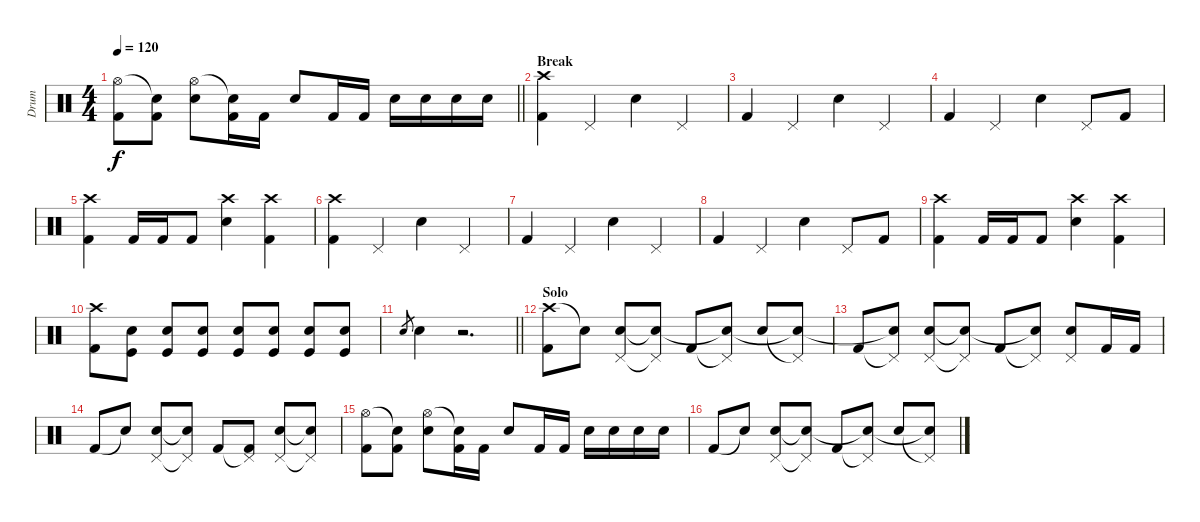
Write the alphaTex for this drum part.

\track ("Drum" "Drum") {instrument percussion}
\staff {score}
\articulation defaults
\ts (4 4)
\tempo 120
\clef neutral
\barLineRight lightlight
\ks c
("Hi-Hat (open)" "Kick (hit) 2").8{dy f} ("Snare (hit)"{t} "Kick (hit) 2").8 ("Hi-Hat (open)" "Electric Snare (hit)").8 ("Snare (hit)"{t} "Kick (hit) 2").16 "Kick (hit) 2".16 "Electric Snare (hit)".8 "Kick (hit) 2".16 "Kick (hit) 2".16 "Electric Snare (hit)".16 "Electric Snare (hit)".16 "Electric Snare (hit)".16 "Electric Snare (hit)".16 |
\section ("" "Break")
("Crash high (hit)" "Kick (hit) 2").4 "Pedal Hi-Hat (hit)".4 "Electric Snare (hit)".4 "Pedal Hi-Hat (hit)".4 |
"Kick (hit) 2".4 "Pedal Hi-Hat (hit)".4 "Electric Snare (hit)".4 "Pedal Hi-Hat (hit)".4 |
"Kick (hit) 2".4 "Pedal Hi-Hat (hit)".4 "Electric Snare (hit)".4 "Pedal Hi-Hat (hit)".8 "Kick (hit) 2".8 |
("Crash high (hit)" "Kick (hit) 2").4 "Kick (hit) 2".16 "Kick (hit) 2".16 "Kick (hit) 2".8 ("Crash high (hit)" "Electric Snare (hit)").4 ("Crash high (hit)" "Kick (hit) 2").4 |
("Crash high (hit)" "Kick (hit) 2").4 "Pedal Hi-Hat (hit)".4 "Electric Snare (hit)".4 "Pedal Hi-Hat (hit)".4 |
"Kick (hit) 2".4 "Pedal Hi-Hat (hit)".4 "Electric Snare (hit)".4 "Pedal Hi-Hat (hit)".4 |
"Kick (hit) 2".4 "Pedal Hi-Hat (hit)".4 "Electric Snare (hit)".4 "Pedal Hi-Hat (hit)".8 "Kick (hit) 2".8 |
("Crash high (hit)" "Kick (hit) 2").4 "Kick (hit) 2".16 "Kick (hit) 2".16 "Kick (hit) 2".8 ("Crash high (hit)" "Electric Snare (hit)").4 ("Crash high (hit)" "Kick (hit) 2").4 |
("Crash high (hit)" "Kick (hit) 2").8 ("Electric Snare (hit)" "Kick (hit)").8 ("Electric Snare (hit)" "Kick (hit)").8 ("Electric Snare (hit)" "Kick (hit)").8 ("Electric Snare (hit)" "Kick (hit)").8 ("Electric Snare (hit)" "Kick (hit)").8 ("Electric Snare (hit)" "Kick (hit)").8 ("Electric Snare (hit)" "Kick (hit)").8 |
\barLineRight lightlight "Electric Snare (hit)".8{gr} "Electric Snare (hit)".4
r.2{d} |
\section ("" "Solo")
("Crash high (hit)" "Kick (hit) 2").8{volume 11} "Snare (hit)"{t}.8 ("Pedal Hi-Hat (hit)" "Electric Snare (hit)").8 ("Pedal Hi-Hat (hit)"{t} "Snare (hit)"{t}).8 "Kick (hit) 2".8 ("Pedal Hi-Hat (hit)"{t} "Snare (hit)"{t}).8 "Electric Snare (hit)".8 ("Pedal Hi-Hat (hit)"{t} "Snare (hit)"{t}).8 |
"Kick (hit) 2".8{volume 11} ("Pedal Hi-Hat (hit)"{t} "Snare (hit)"{t}).8 ("Pedal Hi-Hat (hit)" "Electric Snare (hit)").8 ("Pedal Hi-Hat (hit)"{t} "Snare (hit)"{t}).8 "Kick (hit) 2".8 ("Pedal Hi-Hat (hit)"{t} "Snare (hit)"{t}).8 ("Pedal Hi-Hat (hit)" "Electric Snare (hit)").8 "Kick (hit) 2".16 "Kick (hit) 2".16 |
"Kick (hit) 2".8{volume 11} "Snare (hit)"{t}.8 ("Pedal Hi-Hat (hit)" "Electric Snare (hit)").8 ("Pedal Hi-Hat (hit)"{t} "Snare (hit)"{t}).8 "Kick (hit) 2".8 ("Pedal Hi-Hat (hit)"{t} "Kick (hit) 2").8 ("Pedal Hi-Hat (hit)" "Electric Snare (hit)").8 ("Pedal Hi-Hat (hit)"{t} "Snare (hit)"{t}).8 |
("Hi-Hat (open)" "Kick (hit) 2").8 ("Snare (hit)"{t} "Kick (hit) 2").8 ("Hi-Hat (open)" "Electric Snare (hit)").8 ("Snare (hit)"{t} "Kick (hit) 2").16 "Kick (hit) 2".16 "Electric Snare (hit)".8 "Kick (hit) 2".16 "Kick (hit) 2".16 "Electric Snare (hit)".16 "Electric Snare (hit)".16 "Electric Snare (hit)".16 "Electric Snare (hit)".16 |
"Kick (hit) 2".8{volume 11} "Snare (hit)"{t}.8 ("Pedal Hi-Hat (hit)" "Electric Snare (hit)").8 ("Pedal Hi-Hat (hit)"{t} "Snare (hit)"{t}).8 "Kick (hit) 2".8 ("Pedal Hi-Hat (hit)"{t} "Snare (hit)"{t}).8 "Electric Snare (hit)".8 ("Pedal Hi-Hat (hit)"{t} "Snare (hit)"{t}).8
